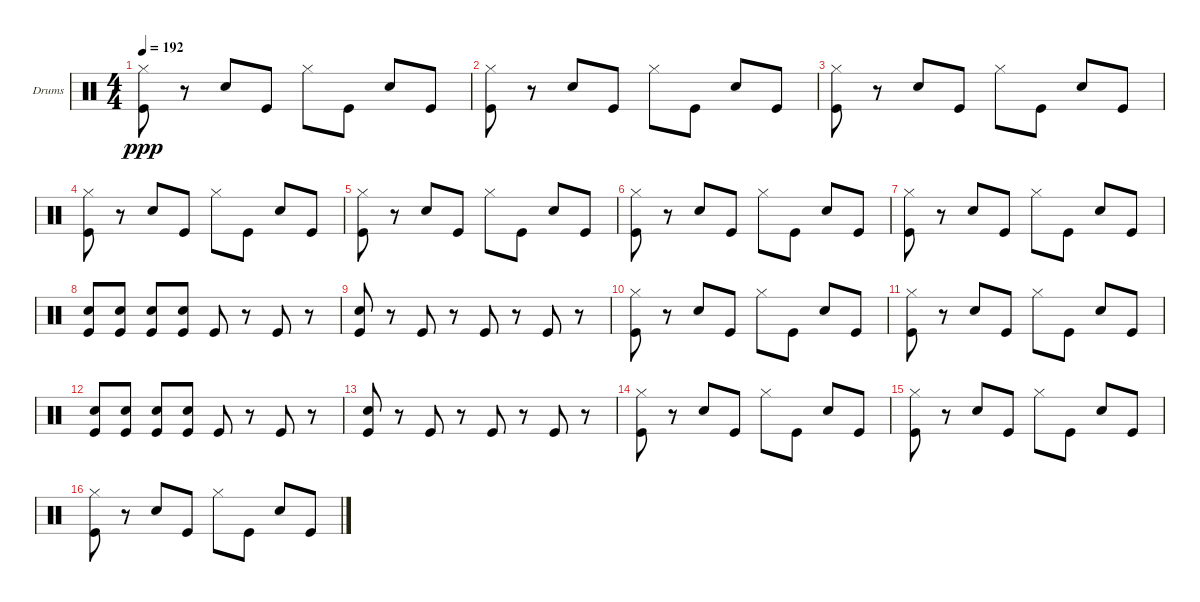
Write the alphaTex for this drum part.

\bracketExtendMode groupsimilarinstruments
\firstSystemTrackNameOrientation horizontal
\otherSystemsTrackNameOrientation horizontal
\track ("Drumkit" "Drums") {instrument percussion}
\staff {score}
\articulation defaults
\ts (4 4)
\tempo 192
\clef neutral
\ks c
("Kick (hit)" "Hi-Hat (closed)").8{dy ppp} r.8 "Snare (hit) 2".8 "Kick (hit)".8 "Hi-Hat (closed)".8 "Kick (hit)".8 "Snare (hit) 2".8 "Kick (hit)".8 |
("Kick (hit)" "Hi-Hat (closed)").8 r.8 "Snare (hit) 2".8 "Kick (hit)".8 "Hi-Hat (closed)".8 "Kick (hit)".8 "Snare (hit) 2".8 "Kick (hit)".8 |
("Kick (hit)" "Hi-Hat (closed)").8 r.8 "Snare (hit) 2".8 "Kick (hit)".8 "Hi-Hat (closed)".8 "Kick (hit)".8 "Snare (hit) 2".8 "Kick (hit)".8 |
("Kick (hit)" "Hi-Hat (closed)").8 r.8 "Snare (hit) 2".8 "Kick (hit)".8 "Hi-Hat (closed)".8 "Kick (hit)".8 "Snare (hit) 2".8 "Kick (hit)".8 |
("Kick (hit)" "Hi-Hat (closed)").8 r.8 "Snare (hit) 2".8 "Kick (hit)".8 "Hi-Hat (closed)".8 "Kick (hit)".8 "Snare (hit) 2".8 "Kick (hit)".8 |
("Kick (hit)" "Hi-Hat (closed)").8 r.8 "Snare (hit) 2".8 "Kick (hit)".8 "Hi-Hat (closed)".8 "Kick (hit)".8 "Snare (hit) 2".8 "Kick (hit)".8 |
("Kick (hit)" "Hi-Hat (closed)").8 r.8 "Snare (hit) 2".8 "Kick (hit)".8 "Hi-Hat (closed)".8 "Kick (hit)".8 "Snare (hit) 2".8 "Kick (hit)".8 |
("Snare (hit) 2" "Kick (hit)").8 ("Snare (hit) 2" "Kick (hit)").8 ("Snare (hit) 2" "Kick (hit)").8 ("Snare (hit) 2" "Kick (hit)").8 "Kick (hit)".8 r.8 "Kick (hit)".8 r.8 |
("Snare (hit) 2" "Kick (hit)").8 r.8 "Kick (hit)".8 r.8 "Kick (hit)".8 r.8 "Kick (hit)".8 r.8 |
("Kick (hit)" "Hi-Hat (closed)").8 r.8 "Snare (hit) 2".8 "Kick (hit)".8 "Hi-Hat (closed)".8 "Kick (hit)".8 "Snare (hit) 2".8 "Kick (hit)".8 |
("Kick (hit)" "Hi-Hat (closed)").8 r.8 "Snare (hit) 2".8 "Kick (hit)".8 "Hi-Hat (closed)".8 "Kick (hit)".8 "Snare (hit) 2".8 "Kick (hit)".8 |
("Snare (hit) 2" "Kick (hit)").8 ("Snare (hit) 2" "Kick (hit)").8 ("Snare (hit) 2" "Kick (hit)").8 ("Snare (hit) 2" "Kick (hit)").8 "Kick (hit)".8 r.8 "Kick (hit)".8 r.8 |
("Snare (hit) 2" "Kick (hit)").8 r.8 "Kick (hit)".8 r.8 "Kick (hit)".8 r.8 "Kick (hit)".8 r.8 |
("Kick (hit)" "Hi-Hat (closed)").8 r.8 "Snare (hit) 2".8 "Kick (hit)".8 "Hi-Hat (closed)".8 "Kick (hit)".8 "Snare (hit) 2".8 "Kick (hit)".8 |
("Kick (hit)" "Hi-Hat (closed)").8 r.8 "Snare (hit) 2".8 "Kick (hit)".8 "Hi-Hat (closed)".8 "Kick (hit)".8 "Snare (hit) 2".8 "Kick (hit)".8 |
("Kick (hit)" "Hi-Hat (closed)").8 r.8 "Snare (hit) 2".8 "Kick (hit)".8 "Hi-Hat (closed)".8 "Kick (hit)".8 "Snare (hit) 2".8 "Kick (hit)".8
